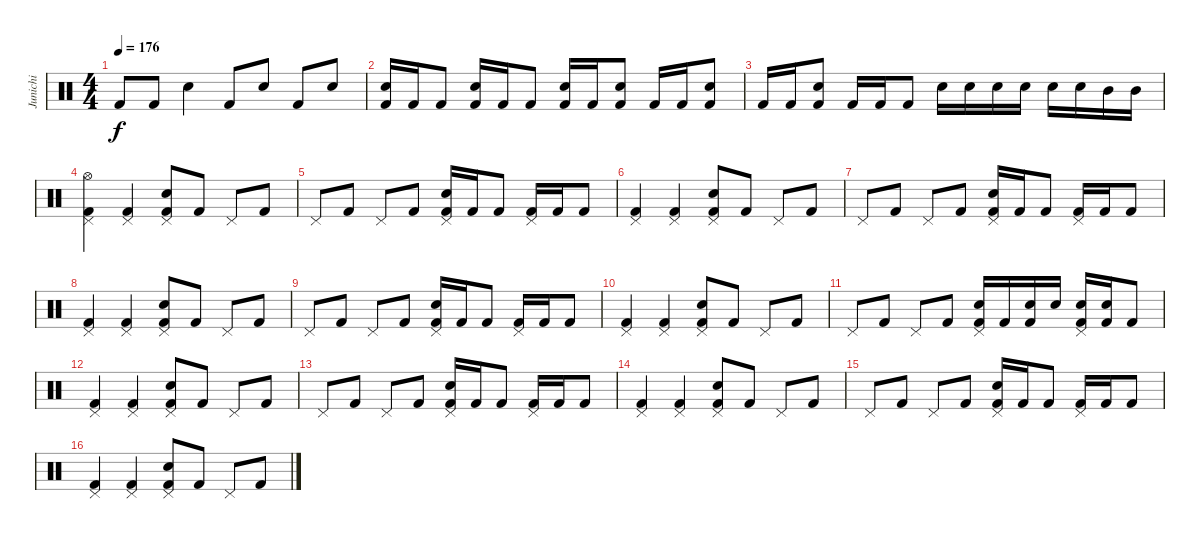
\track ("Junichi" "Junichi") {instrument percussion}
\staff {score}
\articulation defaults
\ts (4 4)
\tempo 176
\clef neutral
\ks c "Kick (hit) 2".8{dy f} "Kick (hit) 2".8 "Snare (hit) 2".4 "Kick (hit) 2".8 "Snare (hit) 2".8 "Kick (hit) 2".8 "Snare (hit) 2".8
|
("Snare (hit) 2" "Kick (hit) 2").16 "Kick (hit) 2".16 "Kick (hit) 2".8 ("Snare (hit) 2" "Kick (hit) 2").16 "Kick (hit) 2".16 "Kick (hit) 2".8 ("Snare (hit) 2" "Kick (hit) 2").16 "Kick (hit) 2".16 ("Snare (hit) 2" "Kick (hit) 2").8 "Kick (hit) 2".16 "Kick (hit) 2".16 ("Snare (hit) 2" "Kick (hit) 2").8 |
"Kick (hit) 2".16 "Kick (hit) 2".16 ("Snare (hit) 2" "Kick (hit) 2").8 "Kick (hit) 2".16 "Kick (hit) 2".16 "Kick (hit) 2".8 "Snare (hit) 2".16 "Snare (hit) 2".16 "Snare (hit) 2".16 "Snare (hit) 2".16 "Snare (hit) 2".16 "Snare (hit) 2".16 "Mid Tom (hit)".16 "Mid Tom (hit)".16 |
("Pedal Hi-Hat (hit)" "Hi-Hat (open)" "Kick (hit) 2").4 ("Pedal Hi-Hat (hit)" "Kick (hit) 2").4 ("Pedal Hi-Hat (hit)" "Snare (hit) 2" "Kick (hit) 2").8 "Kick (hit) 2".8 "Pedal Hi-Hat (hit)".8 "Kick (hit) 2".8 |
"Pedal Hi-Hat (hit)".8 "Kick (hit) 2".8 "Pedal Hi-Hat (hit)".8 "Kick (hit) 2".8 ("Pedal Hi-Hat (hit)" "Snare (hit) 2" "Kick (hit) 2").16 "Kick (hit) 2".16 "Kick (hit) 2".8 ("Pedal Hi-Hat (hit)" "Kick (hit) 2").16 "Kick (hit) 2".16 "Kick (hit) 2".8 |
("Pedal Hi-Hat (hit)" "Kick (hit) 2").4 ("Pedal Hi-Hat (hit)" "Kick (hit) 2").4 ("Pedal Hi-Hat (hit)" "Snare (hit) 2" "Kick (hit) 2").8 "Kick (hit) 2".8 "Pedal Hi-Hat (hit)".8 "Kick (hit) 2".8 |
"Pedal Hi-Hat (hit)".8 "Kick (hit) 2".8 "Pedal Hi-Hat (hit)".8 "Kick (hit) 2".8 ("Pedal Hi-Hat (hit)" "Snare (hit) 2" "Kick (hit) 2").16 "Kick (hit) 2".16 "Kick (hit) 2".8 ("Pedal Hi-Hat (hit)" "Kick (hit) 2").16 "Kick (hit) 2".16 "Kick (hit) 2".8 |
("Pedal Hi-Hat (hit)" "Kick (hit) 2").4 ("Pedal Hi-Hat (hit)" "Kick (hit) 2").4 ("Pedal Hi-Hat (hit)" "Snare (hit) 2" "Kick (hit) 2").8 "Kick (hit) 2".8 "Pedal Hi-Hat (hit)".8 "Kick (hit) 2".8 |
"Pedal Hi-Hat (hit)".8 "Kick (hit) 2".8 "Pedal Hi-Hat (hit)".8 "Kick (hit) 2".8 ("Pedal Hi-Hat (hit)" "Snare (hit) 2" "Kick (hit) 2").16 "Kick (hit) 2".16 "Kick (hit) 2".8 ("Pedal Hi-Hat (hit)" "Kick (hit) 2").16 "Kick (hit) 2".16 "Kick (hit) 2".8 |
("Pedal Hi-Hat (hit)" "Kick (hit) 2").4 ("Pedal Hi-Hat (hit)" "Kick (hit) 2").4 ("Pedal Hi-Hat (hit)" "Snare (hit) 2" "Kick (hit) 2").8 "Kick (hit) 2".8 "Pedal Hi-Hat (hit)".8 "Kick (hit) 2".8 |
"Pedal Hi-Hat (hit)".8 "Kick (hit) 2".8 "Pedal Hi-Hat (hit)".8 "Kick (hit) 2".8 ("Pedal Hi-Hat (hit)" "Snare (hit) 2" "Kick (hit) 2").16 "Kick (hit) 2".16 ("Snare (hit) 2" "Kick (hit) 2").16 "Snare (hit) 2".16 ("Pedal Hi-Hat (hit)" "Snare (hit) 2" "Kick (hit) 2").16 ("Snare (hit) 2" "Kick (hit) 2").16 "Kick (hit) 2".8 |
("Pedal Hi-Hat (hit)" "Kick (hit) 2").4 ("Pedal Hi-Hat (hit)" "Kick (hit) 2").4 ("Pedal Hi-Hat (hit)" "Snare (hit) 2" "Kick (hit) 2").8 "Kick (hit) 2".8 "Pedal Hi-Hat (hit)".8 "Kick (hit) 2".8 |
"Pedal Hi-Hat (hit)".8 "Kick (hit) 2".8 "Pedal Hi-Hat (hit)".8 "Kick (hit) 2".8 ("Pedal Hi-Hat (hit)" "Snare (hit) 2" "Kick (hit) 2").16 "Kick (hit) 2".16 "Kick (hit) 2".8 ("Pedal Hi-Hat (hit)" "Kick (hit) 2").16 "Kick (hit) 2".16 "Kick (hit) 2".8 |
("Pedal Hi-Hat (hit)" "Kick (hit) 2").4 ("Pedal Hi-Hat (hit)" "Kick (hit) 2").4 ("Pedal Hi-Hat (hit)" "Snare (hit) 2" "Kick (hit) 2").8 "Kick (hit) 2".8 "Pedal Hi-Hat (hit)".8 "Kick (hit) 2".8 |
"Pedal Hi-Hat (hit)".8 "Kick (hit) 2".8 "Pedal Hi-Hat (hit)".8 "Kick (hit) 2".8 ("Pedal Hi-Hat (hit)" "Snare (hit) 2" "Kick (hit) 2").16 "Kick (hit) 2".16 "Kick (hit) 2".8 ("Pedal Hi-Hat (hit)" "Kick (hit) 2").16 "Kick (hit) 2".16 "Kick (hit) 2".8 |
("Pedal Hi-Hat (hit)" "Kick (hit) 2").4 ("Pedal Hi-Hat (hit)" "Kick (hit) 2").4 ("Pedal Hi-Hat (hit)" "Snare (hit) 2" "Kick (hit) 2").8 "Kick (hit) 2".8 "Pedal Hi-Hat (hit)".8 "Kick (hit) 2".8
